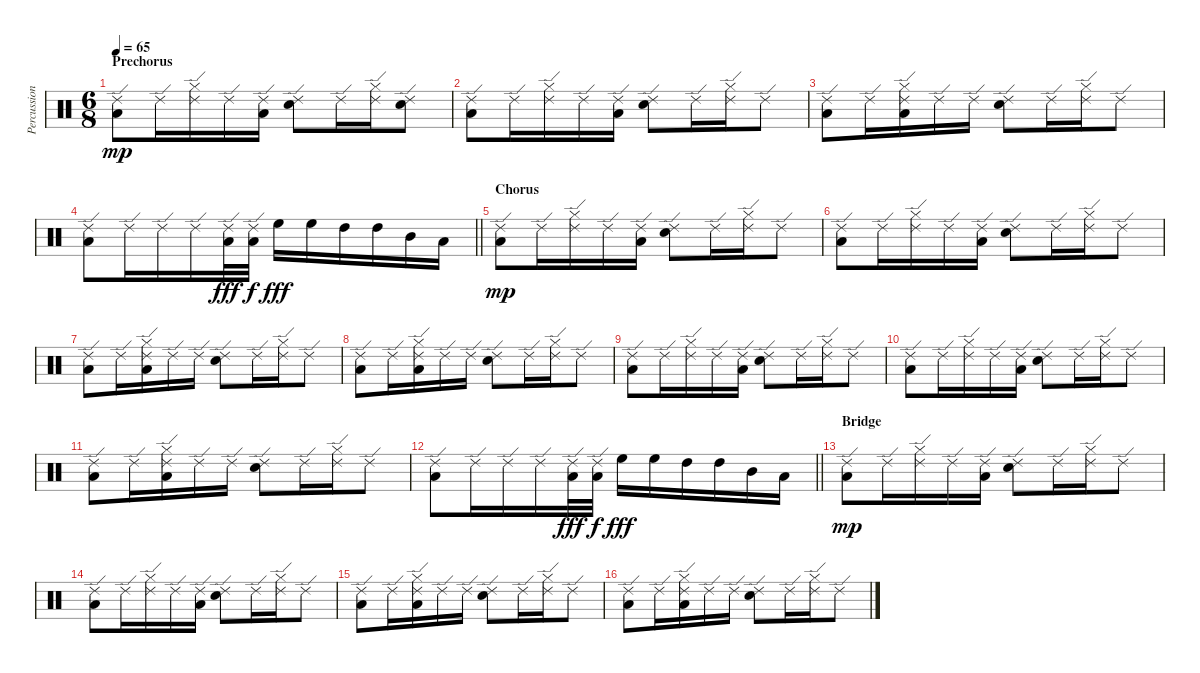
\track ("Percussions" "Percussion") {instrument percussion}
\staff {score}
\articulation defaults
\ts (6 8)
\section ("" "Prechorus")
\tempo 65
\clef neutral
\ks c
("Ride (edge) 2" "Low Tom (hit)").8{dy mp} "Ride (edge) 2".16 ("Ride (edge) 2" "Hi-Hat (closed)").16 "Ride (edge) 2".16 ("Ride (edge) 2" "Low Tom (hit)").16 ("Ride (edge) 2" "Electric Snare (hit)").8 "Ride (edge) 2".16 ("Ride (edge) 2" "Hi-Hat (closed)").16 ("Ride (edge) 2" "Electric Snare (hit)").8 |
("Ride (edge) 2" "Low Tom (hit)").8 "Ride (edge) 2".16 ("Ride (edge) 2" "Hi-Hat (closed)").16 "Ride (edge) 2".16 ("Ride (edge) 2" "Low Tom (hit)").16 ("Ride (edge) 2" "Electric Snare (hit)").8 "Ride (edge) 2".16 ("Ride (edge) 2" "Hi-Hat (closed)").16 "Ride (edge) 2".8 |
("Ride (edge) 2" "Low Tom (hit)").8 "Ride (edge) 2".16 ("Ride (edge) 2" "Hi-Hat (closed)" "Low Tom (hit)").16 "Ride (edge) 2".16 "Ride (edge) 2".16 ("Ride (edge) 2" "Electric Snare (hit)").8 "Ride (edge) 2".16 ("Ride (edge) 2" "Hi-Hat (closed)").16 "Ride (edge) 2".8 |
\barLineRight lightlight
("Ride (edge) 2" "Low Tom (hit)").8 "Ride (edge) 2".16 "Ride (edge) 2".16 "Ride (edge) 2".16 ("Ride (edge) 2" "Low Tom (hit)").32{dy fff} ("Ride (edge) 2" "Low Tom (hit)").32{dy f} "High Floor Tom (hit)".16{dy fff} "High Floor Tom (hit)".16 "High Tom (hit)".16 "High Tom (hit)".16 "Mid Tom (hit)".16 "Low Tom (hit)".16 |
\section ("" "Chorus")
("Ride (edge) 2" "Low Tom (hit)").8{dy mp} "Ride (edge) 2".16 ("Ride (edge) 2" "Hi-Hat (closed)").16 "Ride (edge) 2".16 ("Ride (edge) 2" "Low Tom (hit)").16 ("Ride (edge) 2" "Electric Snare (hit)").8 "Ride (edge) 2".16 ("Ride (edge) 2" "Hi-Hat (closed)").16 "Ride (edge) 2".8 |
("Ride (edge) 2" "Low Tom (hit)").8 "Ride (edge) 2".16 ("Ride (edge) 2" "Hi-Hat (closed)").16 "Ride (edge) 2".16 ("Ride (edge) 2" "Low Tom (hit)").16 ("Ride (edge) 2" "Electric Snare (hit)").8 "Ride (edge) 2".16 ("Ride (edge) 2" "Hi-Hat (closed)").16 "Ride (edge) 2".8 |
("Ride (edge) 2" "Low Tom (hit)").8 "Ride (edge) 2".16 ("Ride (edge) 2" "Hi-Hat (closed)" "Low Tom (hit)").16 "Ride (edge) 2".16 "Ride (edge) 2".16 ("Ride (edge) 2" "Electric Snare (hit)").8 "Ride (edge) 2".16 ("Ride (edge) 2" "Hi-Hat (closed)").16 "Ride (edge) 2".8 |
("Ride (edge) 2" "Low Tom (hit)").8 "Ride (edge) 2".16 ("Ride (edge) 2" "Hi-Hat (closed)" "Low Tom (hit)").16 "Ride (edge) 2".16 "Ride (edge) 2".16 ("Ride (edge) 2" "Electric Snare (hit)").8 "Ride (edge) 2".16 ("Ride (edge) 2" "Hi-Hat (closed)").16 "Ride (edge) 2".8 |
("Ride (edge) 2" "Low Tom (hit)").8 "Ride (edge) 2".16 ("Ride (edge) 2" "Hi-Hat (closed)").16 "Ride (edge) 2".16 ("Ride (edge) 2" "Low Tom (hit)").16 ("Ride (edge) 2" "Electric Snare (hit)").8 "Ride (edge) 2".16 ("Ride (edge) 2" "Hi-Hat (closed)").16 "Ride (edge) 2".8 |
("Ride (edge) 2" "Low Tom (hit)").8 "Ride (edge) 2".16 ("Ride (edge) 2" "Hi-Hat (closed)").16 "Ride (edge) 2".16 ("Ride (edge) 2" "Low Tom (hit)").16 ("Ride (edge) 2" "Electric Snare (hit)").8 "Ride (edge) 2".16 ("Ride (edge) 2" "Hi-Hat (closed)").16 "Ride (edge) 2".8 |
("Ride (edge) 2" "Low Tom (hit)").8 "Ride (edge) 2".16 ("Ride (edge) 2" "Hi-Hat (closed)" "Low Tom (hit)").16 "Ride (edge) 2".16 "Ride (edge) 2".16 ("Ride (edge) 2" "Electric Snare (hit)").8 "Ride (edge) 2".16 ("Ride (edge) 2" "Hi-Hat (closed)").16 "Ride (edge) 2".8 |
\barLineRight lightlight
("Ride (edge) 2" "Low Tom (hit)").8 "Ride (edge) 2".16 "Ride (edge) 2".16 "Ride (edge) 2".16 ("Ride (edge) 2" "Low Tom (hit)").32{dy fff} ("Ride (edge) 2" "Low Tom (hit)").32{dy f} "High Floor Tom (hit)".16{dy fff} "High Floor Tom (hit)".16 "High Tom (hit)".16 "High Tom (hit)".16 "Mid Tom (hit)".16 "Low Tom (hit)".16 |
\section ("" "Bridge")
("Ride (edge) 2" "Low Tom (hit)").8{dy mp} "Ride (edge) 2".16 ("Ride (edge) 2" "Hi-Hat (closed)").16 "Ride (edge) 2".16 ("Ride (edge) 2" "Low Tom (hit)").16 ("Ride (edge) 2" "Electric Snare (hit)").8 "Ride (edge) 2".16 ("Ride (edge) 2" "Hi-Hat (closed)").16 "Ride (edge) 2".8 |
("Ride (edge) 2" "Low Tom (hit)").8 "Ride (edge) 2".16 ("Ride (edge) 2" "Hi-Hat (closed)").16 "Ride (edge) 2".16 ("Ride (edge) 2" "Low Tom (hit)").16 ("Ride (edge) 2" "Electric Snare (hit)").8 "Ride (edge) 2".16 ("Ride (edge) 2" "Hi-Hat (closed)").16 "Ride (edge) 2".8 |
("Ride (edge) 2" "Low Tom (hit)").8 "Ride (edge) 2".16 ("Ride (edge) 2" "Hi-Hat (closed)" "Low Tom (hit)").16 "Ride (edge) 2".16 "Ride (edge) 2".16 ("Ride (edge) 2" "Electric Snare (hit)").8 "Ride (edge) 2".16 ("Ride (edge) 2" "Hi-Hat (closed)").16 "Ride (edge) 2".8 |
("Ride (edge) 2" "Low Tom (hit)").8 "Ride (edge) 2".16 ("Ride (edge) 2" "Hi-Hat (closed)" "Low Tom (hit)").16 "Ride (edge) 2".16 "Ride (edge) 2".16 ("Ride (edge) 2" "Electric Snare (hit)").8 "Ride (edge) 2".16 ("Ride (edge) 2" "Hi-Hat (closed)").16 "Ride (edge) 2".8
